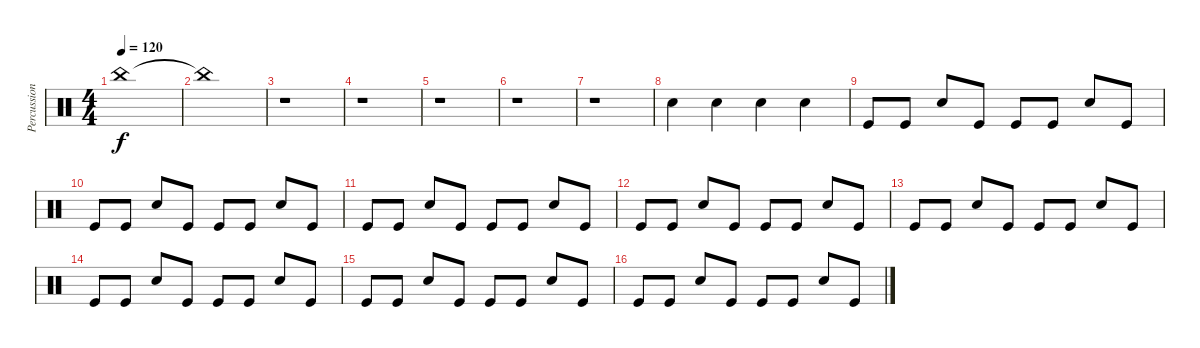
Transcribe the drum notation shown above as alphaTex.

\track ("Percussions" "Percussion") {instrument percussion}
\staff {score}
\articulation defaults
\ts (4 4)
\tempo 120
\clef neutral
\ks c "China (hit)".1{dy f}
|
"China (hit)"{t}.1 |
r.1 |
r.1 |
r.1 |
r.1 |
r.1 |
"Snare (hit) 2".4 "Snare (hit) 2".4 "Snare (hit) 2".4 "Snare (hit) 2".4 |
"Kick (hit)".8 "Kick (hit)".8 "Snare (hit) 2".8 "Kick (hit)".8 "Kick (hit)".8 "Kick (hit)".8 "Snare (hit) 2".8 "Kick (hit)".8 |
"Kick (hit)".8 "Kick (hit)".8 "Snare (hit) 2".8 "Kick (hit)".8 "Kick (hit)".8 "Kick (hit)".8 "Snare (hit) 2".8 "Kick (hit)".8 |
"Kick (hit)".8 "Kick (hit)".8 "Snare (hit) 2".8 "Kick (hit)".8 "Kick (hit)".8 "Kick (hit)".8 "Snare (hit) 2".8 "Kick (hit)".8 |
"Kick (hit)".8 "Kick (hit)".8 "Snare (hit) 2".8 "Kick (hit)".8 "Kick (hit)".8 "Kick (hit)".8 "Snare (hit) 2".8 "Kick (hit)".8 |
"Kick (hit)".8 "Kick (hit)".8 "Snare (hit) 2".8 "Kick (hit)".8 "Kick (hit)".8 "Kick (hit)".8 "Snare (hit) 2".8 "Kick (hit)".8 |
"Kick (hit)".8 "Kick (hit)".8 "Snare (hit) 2".8 "Kick (hit)".8 "Kick (hit)".8 "Kick (hit)".8 "Snare (hit) 2".8 "Kick (hit)".8 |
"Kick (hit)".8 "Kick (hit)".8 "Snare (hit) 2".8 "Kick (hit)".8 "Kick (hit)".8 "Kick (hit)".8 "Snare (hit) 2".8 "Kick (hit)".8 |
"Kick (hit)".8 "Kick (hit)".8 "Snare (hit) 2".8 "Kick (hit)".8 "Kick (hit)".8 "Kick (hit)".8 "Snare (hit) 2".8 "Kick (hit)".8
